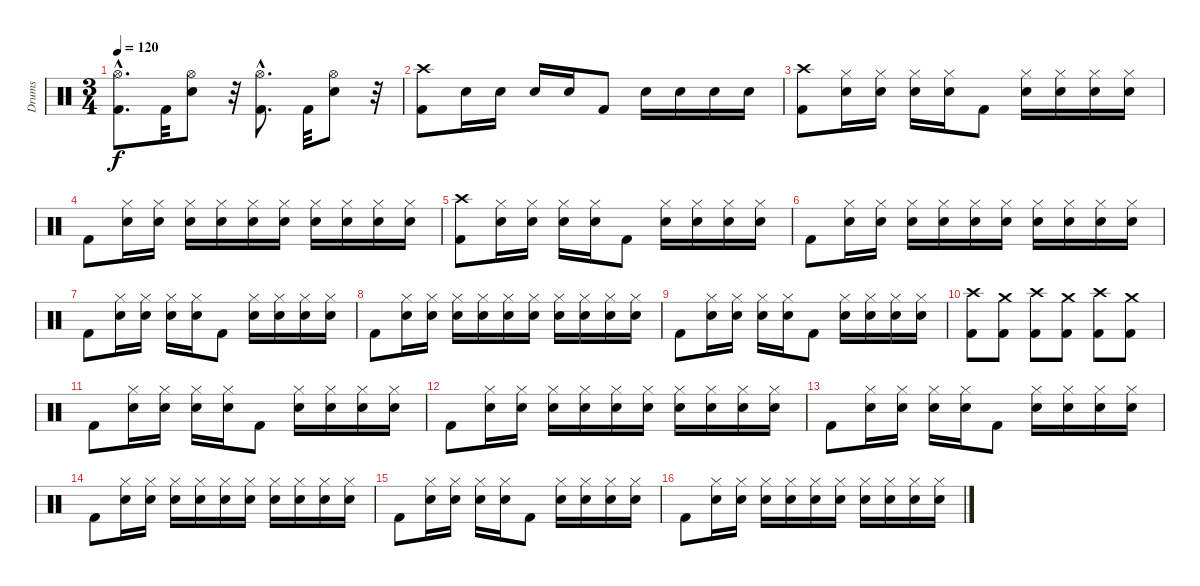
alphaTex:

\track ("Drums" "Drums") {instrument percussion}
\staff {score}
\articulation defaults
\ts (3 4)
\tempo 120
\clef neutral
\ks c
("Hi-Hat (open)"{hac} "Kick (hit) 2"{hac}).8{d dy f} "Kick (hit) 2".32 ("Hi-Hat (open)" "Electric Snare (hit)").8 r.32 ("Hi-Hat (open)"{hac} "Kick (hit) 2"{hac}).8{d} "Kick (hit) 2".32 ("Hi-Hat (open)" "Electric Snare (hit)").8 r.32 |
("Crash high (hit)" "Kick (hit) 2").8 "Electric Snare (hit)".16 "Electric Snare (hit)".16 "Electric Snare (hit)".16 "Electric Snare (hit)".16 "Kick (hit) 2".8 "Electric Snare (hit)".16 "Electric Snare (hit)".16 "Electric Snare (hit)".16 "Electric Snare (hit)".16 |
("Crash high (hit)" "Kick (hit) 2").8 ("Electric Snare (hit)" "Hi-Hat (closed)").16 ("Electric Snare (hit)" "Hi-Hat (closed)").16 ("Electric Snare (hit)" "Hi-Hat (closed)").16 ("Electric Snare (hit)" "Hi-Hat (closed)").16 "Kick (hit) 2".8 ("Electric Snare (hit)" "Hi-Hat (closed)").16 ("Electric Snare (hit)" "Hi-Hat (closed)").16 ("Electric Snare (hit)" "Hi-Hat (closed)").16 ("Electric Snare (hit)" "Hi-Hat (closed)").16 |
"Kick (hit) 2".8 ("Electric Snare (hit)" "Hi-Hat (closed)").16 ("Electric Snare (hit)" "Hi-Hat (closed)").16 ("Electric Snare (hit)" "Hi-Hat (closed)").16 ("Electric Snare (hit)" "Hi-Hat (closed)").16 ("Electric Snare (hit)" "Hi-Hat (closed)").16 ("Electric Snare (hit)" "Hi-Hat (closed)").16 ("Electric Snare (hit)" "Hi-Hat (closed)").16 ("Electric Snare (hit)" "Hi-Hat (closed)").16 ("Electric Snare (hit)" "Hi-Hat (closed)").16 ("Electric Snare (hit)" "Hi-Hat (closed)").16 |
("Crash high (hit)" "Kick (hit) 2").8 ("Electric Snare (hit)" "Hi-Hat (closed)").16 ("Electric Snare (hit)" "Hi-Hat (closed)").16 ("Electric Snare (hit)" "Hi-Hat (closed)").16 ("Electric Snare (hit)" "Hi-Hat (closed)").16 "Kick (hit) 2".8 ("Electric Snare (hit)" "Hi-Hat (closed)").16 ("Electric Snare (hit)" "Hi-Hat (closed)").16 ("Electric Snare (hit)" "Hi-Hat (closed)").16 ("Electric Snare (hit)" "Hi-Hat (closed)").16 |
"Kick (hit) 2".8 ("Electric Snare (hit)" "Hi-Hat (closed)").16 ("Electric Snare (hit)" "Hi-Hat (closed)").16 ("Electric Snare (hit)" "Hi-Hat (closed)").16 ("Electric Snare (hit)" "Hi-Hat (closed)").16 ("Electric Snare (hit)" "Hi-Hat (closed)").16 ("Electric Snare (hit)" "Hi-Hat (closed)").16 ("Electric Snare (hit)" "Hi-Hat (closed)").16 ("Electric Snare (hit)" "Hi-Hat (closed)").16 ("Electric Snare (hit)" "Hi-Hat (closed)").16 ("Electric Snare (hit)" "Hi-Hat (closed)").16 |
"Kick (hit) 2".8 ("Electric Snare (hit)" "Hi-Hat (closed)").16 ("Electric Snare (hit)" "Hi-Hat (closed)").16 ("Electric Snare (hit)" "Hi-Hat (closed)").16 ("Electric Snare (hit)" "Hi-Hat (closed)").16 "Kick (hit) 2".8 ("Electric Snare (hit)" "Hi-Hat (closed)").16 ("Electric Snare (hit)" "Hi-Hat (closed)").16 ("Electric Snare (hit)" "Hi-Hat (closed)").16 ("Electric Snare (hit)" "Hi-Hat (closed)").16 |
"Kick (hit) 2".8 ("Electric Snare (hit)" "Hi-Hat (closed)").16 ("Electric Snare (hit)" "Hi-Hat (closed)").16 ("Electric Snare (hit)" "Hi-Hat (closed)").16 ("Electric Snare (hit)" "Hi-Hat (closed)").16 ("Electric Snare (hit)" "Hi-Hat (closed)").16 ("Electric Snare (hit)" "Hi-Hat (closed)").16 ("Electric Snare (hit)" "Hi-Hat (closed)").16 ("Electric Snare (hit)" "Hi-Hat (closed)").16 ("Electric Snare (hit)" "Hi-Hat (closed)").16 ("Electric Snare (hit)" "Hi-Hat (closed)").16 |
"Kick (hit) 2".8 ("Electric Snare (hit)" "Hi-Hat (closed)").16 ("Electric Snare (hit)" "Hi-Hat (closed)").16 ("Electric Snare (hit)" "Hi-Hat (closed)").16 ("Electric Snare (hit)" "Hi-Hat (closed)").16 "Kick (hit) 2".8 ("Electric Snare (hit)" "Hi-Hat (closed)").16 ("Electric Snare (hit)" "Hi-Hat (closed)").16 ("Electric Snare (hit)" "Hi-Hat (closed)").16 ("Electric Snare (hit)" "Hi-Hat (closed)").16 |
("Crash high (hit)" "Kick (hit) 2").8 ("Crash medium (hit)" "Kick (hit) 2").8 ("Crash high (hit)" "Kick (hit) 2").8 ("Crash medium (hit)" "Kick (hit) 2").8 ("Crash high (hit)" "Kick (hit) 2").8 ("Crash medium (hit)" "Kick (hit) 2").8 |
"Kick (hit) 2".8 ("Electric Snare (hit)" "Hi-Hat (closed)").16 ("Electric Snare (hit)" "Hi-Hat (closed)").16 ("Electric Snare (hit)" "Hi-Hat (closed)").16 ("Electric Snare (hit)" "Hi-Hat (closed)").16 "Kick (hit) 2".8 ("Electric Snare (hit)" "Hi-Hat (closed)").16 ("Electric Snare (hit)" "Hi-Hat (closed)").16 ("Electric Snare (hit)" "Hi-Hat (closed)").16 ("Electric Snare (hit)" "Hi-Hat (closed)").16 |
"Kick (hit) 2".8 ("Electric Snare (hit)" "Hi-Hat (closed)").16 ("Electric Snare (hit)" "Hi-Hat (closed)").16 ("Electric Snare (hit)" "Hi-Hat (closed)").16 ("Electric Snare (hit)" "Hi-Hat (closed)").16 ("Electric Snare (hit)" "Hi-Hat (closed)").16 ("Electric Snare (hit)" "Hi-Hat (closed)").16 ("Electric Snare (hit)" "Hi-Hat (closed)").16 ("Electric Snare (hit)" "Hi-Hat (closed)").16 ("Electric Snare (hit)" "Hi-Hat (closed)").16 ("Electric Snare (hit)" "Hi-Hat (closed)").16 |
"Kick (hit) 2".8 ("Electric Snare (hit)" "Hi-Hat (closed)").16 ("Electric Snare (hit)" "Hi-Hat (closed)").16 ("Electric Snare (hit)" "Hi-Hat (closed)").16 ("Electric Snare (hit)" "Hi-Hat (closed)").16 "Kick (hit) 2".8 ("Electric Snare (hit)" "Hi-Hat (closed)").16 ("Electric Snare (hit)" "Hi-Hat (closed)").16 ("Electric Snare (hit)" "Hi-Hat (closed)").16 ("Electric Snare (hit)" "Hi-Hat (closed)").16 |
"Kick (hit) 2".8 ("Electric Snare (hit)" "Hi-Hat (closed)").16 ("Electric Snare (hit)" "Hi-Hat (closed)").16 ("Electric Snare (hit)" "Hi-Hat (closed)").16 ("Electric Snare (hit)" "Hi-Hat (closed)").16 ("Electric Snare (hit)" "Hi-Hat (closed)").16 ("Electric Snare (hit)" "Hi-Hat (closed)").16 ("Electric Snare (hit)" "Hi-Hat (closed)").16 ("Electric Snare (hit)" "Hi-Hat (closed)").16 ("Electric Snare (hit)" "Hi-Hat (closed)").16 ("Electric Snare (hit)" "Hi-Hat (closed)").16 |
"Kick (hit) 2".8 ("Electric Snare (hit)" "Hi-Hat (closed)").16 ("Electric Snare (hit)" "Hi-Hat (closed)").16 ("Electric Snare (hit)" "Hi-Hat (closed)").16 ("Electric Snare (hit)" "Hi-Hat (closed)").16 "Kick (hit) 2".8 ("Electric Snare (hit)" "Hi-Hat (closed)").16 ("Electric Snare (hit)" "Hi-Hat (closed)").16 ("Electric Snare (hit)" "Hi-Hat (closed)").16 ("Electric Snare (hit)" "Hi-Hat (closed)").16 |
"Kick (hit) 2".8 ("Electric Snare (hit)" "Hi-Hat (closed)").16 ("Electric Snare (hit)" "Hi-Hat (closed)").16 ("Electric Snare (hit)" "Hi-Hat (closed)").16 ("Electric Snare (hit)" "Hi-Hat (closed)").16 ("Electric Snare (hit)" "Hi-Hat (closed)").16 ("Electric Snare (hit)" "Hi-Hat (closed)").16 ("Electric Snare (hit)" "Hi-Hat (closed)").16 ("Electric Snare (hit)" "Hi-Hat (closed)").16 ("Electric Snare (hit)" "Hi-Hat (closed)").16 ("Electric Snare (hit)" "Hi-Hat (closed)").16
